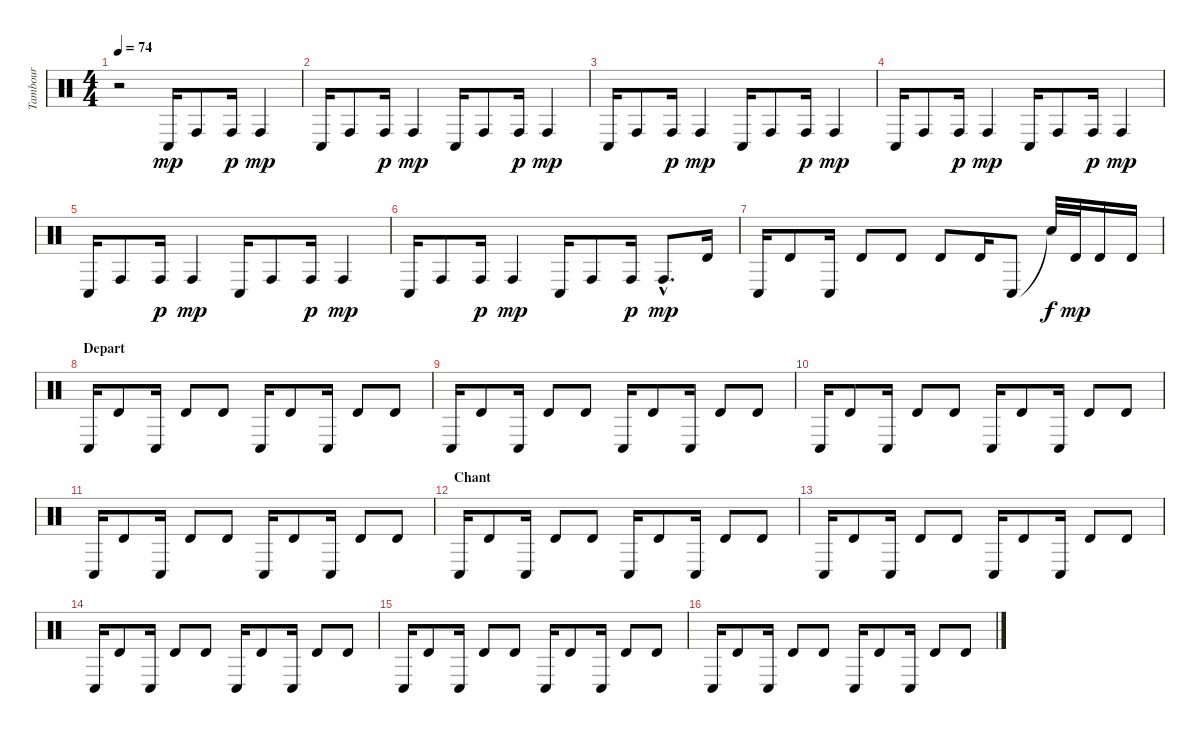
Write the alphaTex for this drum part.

\track ("Tambour" "Tambour") {instrument percussion}
\staff {score}
\articulation defaults
\ts (4 4)
\tempo 74
\clef neutral
\ks c
r.2{dy mp} "Conga low (hit)".16 "Conga high (hit)".8 "Conga high (hit)".16{dy p} "Conga high (hit)".4{dy mp} |
"Conga low (hit)".16 "Conga high (hit)".8 "Conga high (hit)".16{dy p} "Conga high (hit)".4{dy mp} "Conga low (hit)".16 "Conga high (hit)".8 "Conga high (hit)".16{dy p} "Conga high (hit)".4{dy mp} |
"Conga low (hit)".16 "Conga high (hit)".8 "Conga high (hit)".16{dy p} "Conga high (hit)".4{dy mp} "Conga low (hit)".16 "Conga high (hit)".8 "Conga high (hit)".16{dy p} "Conga high (hit)".4{dy mp} |
"Conga low (hit)".16 "Conga high (hit)".8 "Conga high (hit)".16{dy p} "Conga high (hit)".4{dy mp} "Conga low (hit)".16 "Conga high (hit)".8 "Conga high (hit)".16{dy p} "Conga high (hit)".4{dy mp} |
"Conga low (hit)".16 "Conga high (hit)".8 "Conga high (hit)".16{dy p} "Conga high (hit)".4{dy mp} "Conga low (hit)".16 "Conga high (hit)".8 "Conga high (hit)".16{dy p} "Conga high (hit)".4{dy mp} |
"Conga low (hit)".16 "Conga high (hit)".8 "Conga high (hit)".16{dy p} "Conga high (hit)".4{dy mp} "Conga low (hit)".16 "Conga high (hit)".8 "Conga high (hit)".16{dy p} "Conga high (hit)"{hac}.8{d dy mp} "Timbale high (hit)".16 |
"Conga low (hit)".16 "Timbale high (hit)".8 "Conga low (hit)".16 "Timbale high (hit)".8 "Timbale high (hit)".8 "Timbale high (hit)".8 "Timbale high (hit)".16 "Conga low (hit)".8 "Snare (hit)"{t}.32{dy f} "Timbale high (hit)".32{dy mp} "Timbale high (hit)".16 "Timbale high (hit)".16 |
\section ("" "Depart")
"Conga low (hit)".16 "Timbale high (hit)".8 "Conga low (hit)".16 "Timbale high (hit)".8 "Timbale high (hit)".8 "Conga low (hit)".16 "Timbale high (hit)".8 "Conga low (hit)".16 "Timbale high (hit)".8 "Timbale high (hit)".8 |
"Conga low (hit)".16 "Timbale high (hit)".8 "Conga low (hit)".16 "Timbale high (hit)".8 "Timbale high (hit)".8 "Conga low (hit)".16 "Timbale high (hit)".8 "Conga low (hit)".16 "Timbale high (hit)".8 "Timbale high (hit)".8 |
"Conga low (hit)".16 "Timbale high (hit)".8 "Conga low (hit)".16 "Timbale high (hit)".8 "Timbale high (hit)".8 "Conga low (hit)".16 "Timbale high (hit)".8 "Conga low (hit)".16 "Timbale high (hit)".8 "Timbale high (hit)".8 |
"Conga low (hit)".16 "Timbale high (hit)".8 "Conga low (hit)".16 "Timbale high (hit)".8 "Timbale high (hit)".8 "Conga low (hit)".16 "Timbale high (hit)".8 "Conga low (hit)".16 "Timbale high (hit)".8 "Timbale high (hit)".8 |
\section ("" "Chant")
"Conga low (hit)".16 "Timbale high (hit)".8 "Conga low (hit)".16 "Timbale high (hit)".8 "Timbale high (hit)".8 "Conga low (hit)".16 "Timbale high (hit)".8 "Conga low (hit)".16 "Timbale high (hit)".8 "Timbale high (hit)".8 |
"Conga low (hit)".16 "Timbale high (hit)".8 "Conga low (hit)".16 "Timbale high (hit)".8 "Timbale high (hit)".8 "Conga low (hit)".16 "Timbale high (hit)".8 "Conga low (hit)".16 "Timbale high (hit)".8 "Timbale high (hit)".8 |
"Conga low (hit)".16 "Timbale high (hit)".8 "Conga low (hit)".16 "Timbale high (hit)".8 "Timbale high (hit)".8 "Conga low (hit)".16 "Timbale high (hit)".8 "Conga low (hit)".16 "Timbale high (hit)".8 "Timbale high (hit)".8 |
"Conga low (hit)".16 "Timbale high (hit)".8 "Conga low (hit)".16 "Timbale high (hit)".8 "Timbale high (hit)".8 "Conga low (hit)".16 "Timbale high (hit)".8 "Conga low (hit)".16 "Timbale high (hit)".8 "Timbale high (hit)".8 |
"Conga low (hit)".16 "Timbale high (hit)".8 "Conga low (hit)".16 "Timbale high (hit)".8 "Timbale high (hit)".8 "Conga low (hit)".16 "Timbale high (hit)".8 "Conga low (hit)".16 "Timbale high (hit)".8 "Timbale high (hit)".8
